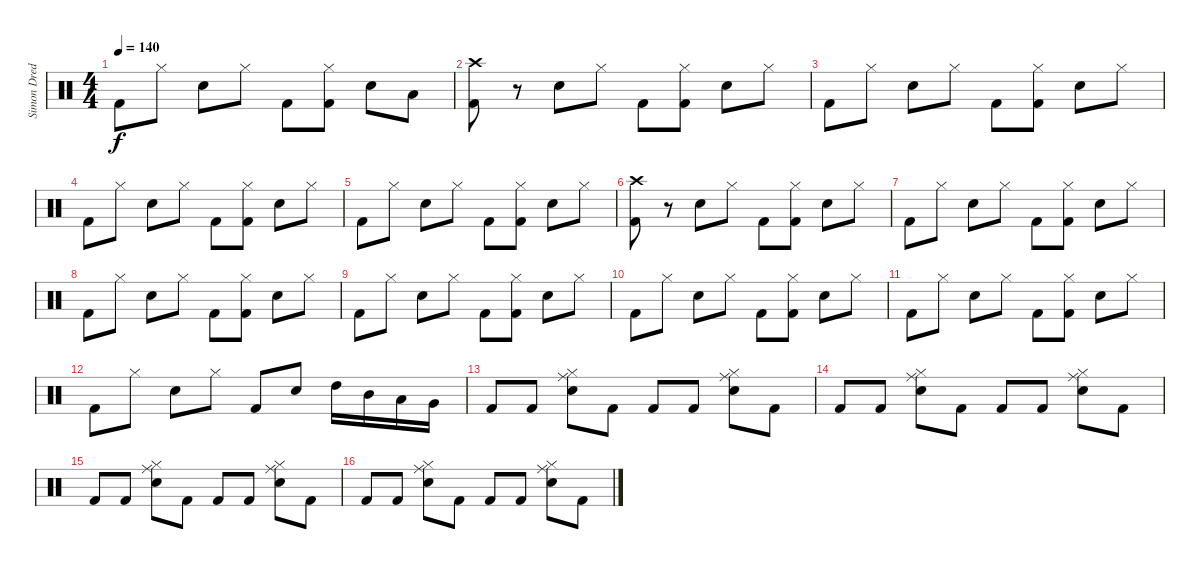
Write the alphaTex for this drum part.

\track ("Simon Dredo" "Simon Dred") {instrument percussion}
\staff {score}
\articulation defaults
\ts (4 4)
\tempo 140
\clef neutral
\ks c "Kick (hit) 2".8{dy f} "Hi-Hat (closed)".8 "Snare (hit) 2".8 "Hi-Hat (closed)".8 "Kick (hit) 2".8
("Hi-Hat (closed)" "Kick (hit) 2").8 "Electric Snare (hit)".8 "Low Tom (hit)".8 |
("Crash high (hit)" "Kick (hit) 2").8 r.8 "Snare (hit) 2".8 "Hi-Hat (closed)".8 "Kick (hit) 2".8 ("Hi-Hat (closed)" "Kick (hit) 2").8 "Snare (hit) 2".8 "Hi-Hat (closed)".8 |
"Kick (hit) 2".8 "Hi-Hat (closed)".8 "Snare (hit) 2".8 "Hi-Hat (closed)".8 "Kick (hit) 2".8 ("Hi-Hat (closed)" "Kick (hit) 2").8 "Snare (hit) 2".8 "Hi-Hat (closed)".8 |
"Kick (hit) 2".8 "Hi-Hat (closed)".8 "Snare (hit) 2".8 "Hi-Hat (closed)".8 "Kick (hit) 2".8 ("Hi-Hat (closed)" "Kick (hit) 2").8 "Snare (hit) 2".8 "Hi-Hat (closed)".8 |
"Kick (hit) 2".8 "Hi-Hat (closed)".8 "Snare (hit) 2".8 "Hi-Hat (closed)".8 "Kick (hit) 2".8 ("Hi-Hat (closed)" "Kick (hit) 2").8 "Snare (hit) 2".8 "Hi-Hat (closed)".8 |
("Crash high (hit)" "Kick (hit) 2").8 r.8 "Snare (hit) 2".8 "Hi-Hat (closed)".8 "Kick (hit) 2".8 ("Hi-Hat (closed)" "Kick (hit) 2").8 "Snare (hit) 2".8 "Hi-Hat (closed)".8 |
"Kick (hit) 2".8 "Hi-Hat (closed)".8 "Snare (hit) 2".8 "Hi-Hat (closed)".8 "Kick (hit) 2".8 ("Hi-Hat (closed)" "Kick (hit) 2").8 "Snare (hit) 2".8 "Hi-Hat (closed)".8 |
"Kick (hit) 2".8 "Hi-Hat (closed)".8 "Snare (hit) 2".8 "Hi-Hat (closed)".8 "Kick (hit) 2".8 ("Hi-Hat (closed)" "Kick (hit) 2").8 "Snare (hit) 2".8 "Hi-Hat (closed)".8 |
"Kick (hit) 2".8 "Hi-Hat (closed)".8 "Snare (hit) 2".8 "Hi-Hat (closed)".8 "Kick (hit) 2".8 ("Hi-Hat (closed)" "Kick (hit) 2").8 "Snare (hit) 2".8 "Hi-Hat (closed)".8 |
"Kick (hit) 2".8 "Hi-Hat (closed)".8 "Snare (hit) 2".8 "Hi-Hat (closed)".8 "Kick (hit) 2".8 ("Hi-Hat (closed)" "Kick (hit) 2").8 "Snare (hit) 2".8 "Hi-Hat (closed)".8 |
"Kick (hit) 2".8 "Hi-Hat (closed)".8 "Snare (hit) 2".8 "Hi-Hat (closed)".8 "Kick (hit) 2".8 ("Hi-Hat (closed)" "Kick (hit) 2").8 "Snare (hit) 2".8 "Hi-Hat (closed)".8 |
"Kick (hit) 2".8 "Hi-Hat (closed)".8 "Snare (hit) 2".8 "Hi-Hat (closed)".8 "Kick (hit) 2".8 "Snare (hit) 2".8 "High Tom (hit)".16 "Mid Tom (hit)".16 "Low Tom (hit)".16 "Very Low Tom (hit)".16 |
"Kick (hit) 2".8 "Kick (hit) 2".8 ("Hi-Hat (closed)" "Ride (middle)" "Snare (hit) 2").8 "Kick (hit) 2".8 "Kick (hit) 2".8 "Kick (hit) 2".8 ("Hi-Hat (closed)" "Ride (middle)" "Snare (hit) 2").8 "Kick (hit) 2".8 |
"Kick (hit) 2".8 "Kick (hit) 2".8 ("Hi-Hat (closed)" "Ride (middle)" "Snare (hit) 2").8 "Kick (hit) 2".8 "Kick (hit) 2".8 "Kick (hit) 2".8 ("Hi-Hat (closed)" "Ride (middle)" "Snare (hit) 2").8 "Kick (hit) 2".8 |
"Kick (hit) 2".8 "Kick (hit) 2".8 ("Hi-Hat (closed)" "Ride (middle)" "Snare (hit) 2").8 "Kick (hit) 2".8 "Kick (hit) 2".8 "Kick (hit) 2".8 ("Hi-Hat (closed)" "Ride (middle)" "Snare (hit) 2").8 "Kick (hit) 2".8 |
"Kick (hit) 2".8 "Kick (hit) 2".8 ("Hi-Hat (closed)" "Ride (middle)" "Snare (hit) 2").8 "Kick (hit) 2".8 "Kick (hit) 2".8 "Kick (hit) 2".8 ("Hi-Hat (closed)" "Ride (middle)" "Snare (hit) 2").8 "Kick (hit) 2".8
